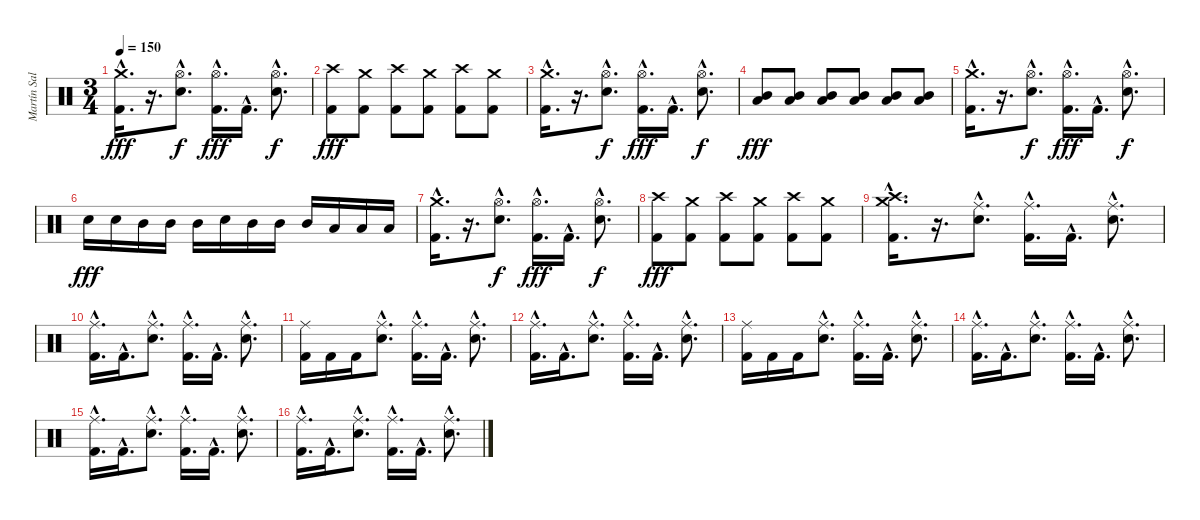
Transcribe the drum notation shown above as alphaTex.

\track ("Martín Salariato" "Martín Sal") {instrument percussion}
\staff {score}
\articulation defaults
\ts (3 4)
\tempo 150
\clef neutral
\ks c
("Crash medium (hit)"{hac} "Kick (hit) 2"{hac}).16{d dy fff} r.16{d} ("Hi-Hat (open)"{hac} "Snare (hit) 2"{hac}).8{d dy f} ("Hi-Hat (open)"{hac} "Kick (hit) 2"{hac}).16{d dy fff} "Kick (hit) 2"{hac}.16{d} ("Hi-Hat (open)"{hac} "Snare (hit) 2"{hac}).8{d dy f} |
("Crash high (hit)" "Kick (hit) 2").8{dy fff} ("Crash medium (hit)" "Kick (hit) 2").8 ("Crash high (hit)" "Kick (hit) 2").8 ("Crash medium (hit)" "Kick (hit) 2").8 ("Crash high (hit)" "Kick (hit) 2").8 ("Crash medium (hit)" "Kick (hit) 2").8 |
("Crash medium (hit)"{hac} "Kick (hit) 2"{hac}).16{d} r.16{d} ("Hi-Hat (open)"{hac} "Snare (hit) 2"{hac}).8{d dy f} ("Hi-Hat (open)"{hac} "Kick (hit) 2"{hac}).16{d dy fff} "Kick (hit) 2"{hac}.16{d} ("Hi-Hat (open)"{hac} "Snare (hit) 2"{hac}).8{d dy f} |
("Mid Tom (hit)" "Low Tom (hit)").8{dy fff} ("Mid Tom (hit)" "Low Tom (hit)").8 ("Mid Tom (hit)" "Low Tom (hit)").8 ("Mid Tom (hit)" "Low Tom (hit)").8 ("Mid Tom (hit)" "Low Tom (hit)").8 ("Mid Tom (hit)" "Low Tom (hit)").8 |
("Crash medium (hit)"{hac} "Kick (hit) 2"{hac}).16{d} r.16{d} ("Hi-Hat (open)"{hac} "Snare (hit) 2"{hac}).8{d dy f} ("Hi-Hat (open)"{hac} "Kick (hit) 2"{hac}).16{d dy fff} "Kick (hit) 2"{hac}.16{d} ("Hi-Hat (open)"{hac} "Snare (hit) 2"{hac}).8{d dy f} |
"Snare (hit) 2".16{dy fff} "Snare (hit) 2".16 "Mid Tom (hit)".16 "Mid Tom (hit)".16 "Mid Tom (hit)".16 "Snare (hit) 2".16 "Mid Tom (hit)".16 "Mid Tom (hit)".16 "Mid Tom (hit)".16 "Low Tom (hit)".16 "Low Tom (hit)".16 "Low Tom (hit)".16 |
("Crash medium (hit)"{hac} "Kick (hit) 2"{hac}).16{d} r.16{d} ("Hi-Hat (open)"{hac} "Snare (hit) 2"{hac}).8{d dy f} ("Hi-Hat (open)"{hac} "Kick (hit) 2"{hac}).16{d dy fff} "Kick (hit) 2"{hac}.16{d} ("Hi-Hat (open)"{hac} "Snare (hit) 2"{hac}).8{d dy f} |
("Crash high (hit)" "Kick (hit) 2").8{dy fff} ("Crash medium (hit)" "Kick (hit) 2").8 ("Crash high (hit)" "Kick (hit) 2").8 ("Crash medium (hit)" "Kick (hit) 2").8 ("Crash high (hit)" "Kick (hit) 2").8 ("Crash medium (hit)" "Kick (hit) 2").8 |
("Crash medium (hit)"{hac} "Crash high (hit)"{hac} "Kick (hit) 2"{hac}).16{d} r.16{d} ("Ride (middle)"{hac} "Snare (hit) 2"{hac}).8{d} ("Ride (middle)"{hac} "Kick (hit) 2"{hac}).16{d} "Kick (hit) 2"{hac}.16{d} ("Ride (middle)"{hac} "Snare (hit) 2"{hac}).8{d} |
("Ride (middle)"{hac} "Kick (hit) 2"{hac}).16{d} "Kick (hit) 2"{hac}.16{d} ("Ride (middle)"{hac} "Snare (hit) 2"{hac}).8{d} ("Ride (middle)"{hac} "Kick (hit) 2"{hac}).16{d} "Kick (hit) 2"{hac}.16{d} ("Ride (middle)"{hac} "Snare (hit) 2"{hac}).8{d} |
("Ride (middle)" "Kick (hit) 2").16 "Kick (hit) 2".16 "Kick (hit) 2".16 ("Ride (middle)"{hac} "Snare (hit) 2"{hac}).8{d} ("Ride (middle)"{hac} "Kick (hit) 2"{hac}).16{d} "Kick (hit) 2"{hac}.16{d} ("Ride (middle)"{hac} "Snare (hit) 2"{hac}).8{d} |
("Ride (middle)"{hac} "Kick (hit) 2"{hac}).16{d} "Kick (hit) 2"{hac}.16{d} ("Ride (middle)"{hac} "Snare (hit) 2"{hac}).8{d} ("Ride (middle)"{hac} "Kick (hit) 2"{hac}).16{d} "Kick (hit) 2"{hac}.16{d} ("Ride (middle)"{hac} "Snare (hit) 2"{hac}).8{d} |
("Ride (middle)" "Kick (hit) 2").16 "Kick (hit) 2".16 "Kick (hit) 2".16 ("Ride (middle)"{hac} "Snare (hit) 2"{hac}).8{d} ("Ride (middle)"{hac} "Kick (hit) 2"{hac}).16{d} "Kick (hit) 2"{hac}.16{d} ("Ride (middle)"{hac} "Snare (hit) 2"{hac}).8{d} |
("Ride (middle)"{hac} "Kick (hit) 2"{hac}).16{d} "Kick (hit) 2"{hac}.16{d} ("Ride (middle)"{hac} "Snare (hit) 2"{hac}).8{d} ("Ride (middle)"{hac} "Kick (hit) 2"{hac}).16{d} "Kick (hit) 2"{hac}.16{d} ("Ride (middle)"{hac} "Snare (hit) 2"{hac}).8{d} |
("Ride (middle)"{hac} "Kick (hit) 2"{hac}).16{d} "Kick (hit) 2"{hac}.16{d} ("Ride (middle)"{hac} "Snare (hit) 2"{hac}).8{d} ("Ride (middle)"{hac} "Kick (hit) 2"{hac}).16{d} "Kick (hit) 2"{hac}.16{d} ("Ride (middle)"{hac} "Snare (hit) 2"{hac}).8{d} |
("Ride (middle)"{hac} "Kick (hit) 2"{hac}).16{d} "Kick (hit) 2"{hac}.16{d} ("Ride (middle)"{hac} "Snare (hit) 2"{hac}).8{d} ("Ride (middle)"{hac} "Kick (hit) 2"{hac}).16{d} "Kick (hit) 2"{hac}.16{d} ("Ride (middle)"{hac} "Snare (hit) 2"{hac}).8{d}
